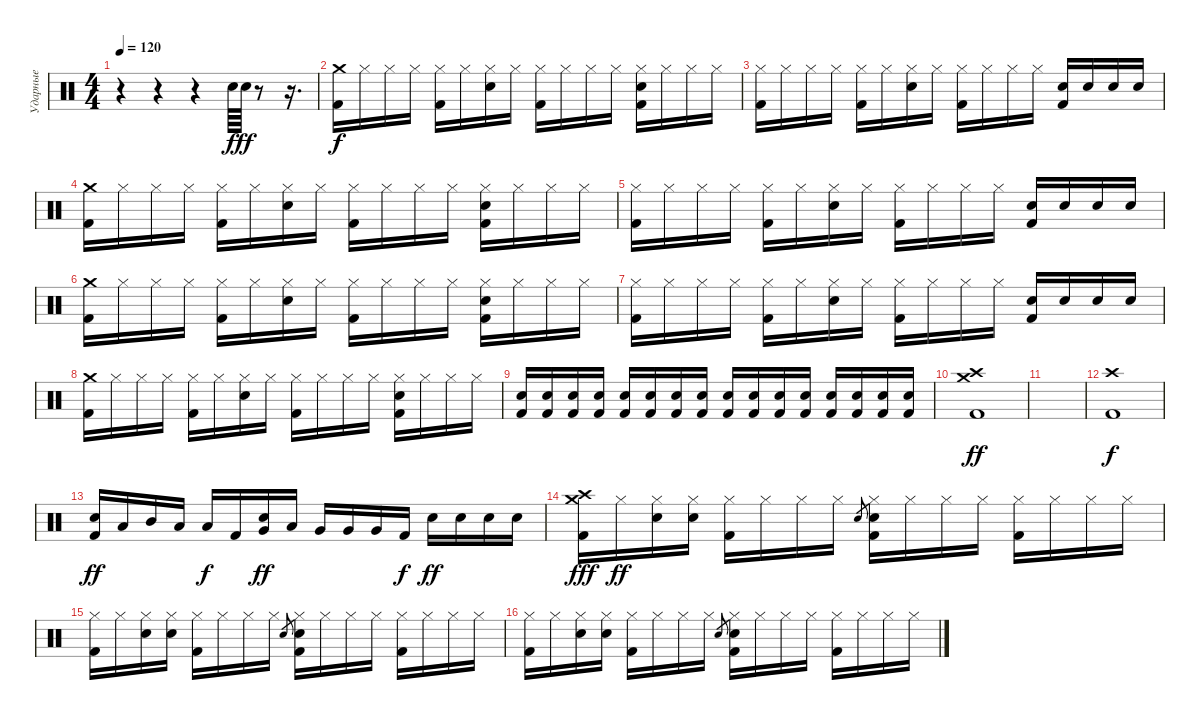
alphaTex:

\track ("Ударные" "Ударные") {instrument percussion}
\staff {score}
\articulation defaults
\ts (4 4)
\tempo 120
\clef neutral
\ks c
r.4{dy f} r.4 r.4 "Electric Snare (hit)".64 "Electric Snare (hit)".64{dy ff} r.8 r.16{d} |
("Crash medium (hit)" "Kick (hit) 2").16{dy f} "Hi-Hat (closed)".16 "Hi-Hat (closed)".16 "Hi-Hat (closed)".16 ("Hi-Hat (closed)" "Kick (hit) 2").16 "Hi-Hat (closed)".16 ("Hi-Hat (closed)" "Electric Snare (hit)").16 "Hi-Hat (closed)".16 ("Hi-Hat (closed)" "Kick (hit) 2").16 "Hi-Hat (closed)".16 "Hi-Hat (closed)".16 "Hi-Hat (closed)".16 ("Hi-Hat (closed)" "Electric Snare (hit)" "Kick (hit) 2").16 "Hi-Hat (closed)".16 "Hi-Hat (closed)".16 "Hi-Hat (closed)".16 |
("Hi-Hat (closed)" "Kick (hit) 2").16 "Hi-Hat (closed)".16 "Hi-Hat (closed)".16 "Hi-Hat (closed)".16 ("Hi-Hat (closed)" "Kick (hit) 2").16 "Hi-Hat (closed)".16 ("Hi-Hat (closed)" "Electric Snare (hit)").16 "Hi-Hat (closed)".16 ("Hi-Hat (closed)" "Kick (hit) 2").16 "Hi-Hat (closed)".16 "Hi-Hat (closed)".16 "Hi-Hat (closed)".16 ("Electric Snare (hit)" "Kick (hit) 2").16 "Electric Snare (hit)".16 "Electric Snare (hit)".16 "Electric Snare (hit)".16 |
("Crash medium (hit)" "Kick (hit) 2").16 "Hi-Hat (closed)".16 "Hi-Hat (closed)".16 "Hi-Hat (closed)".16 ("Hi-Hat (closed)" "Kick (hit) 2").16 "Hi-Hat (closed)".16 ("Hi-Hat (closed)" "Electric Snare (hit)").16 "Hi-Hat (closed)".16 ("Hi-Hat (closed)" "Kick (hit) 2").16 "Hi-Hat (closed)".16 "Hi-Hat (closed)".16 "Hi-Hat (closed)".16 ("Hi-Hat (closed)" "Electric Snare (hit)" "Kick (hit) 2").16 "Hi-Hat (closed)".16 "Hi-Hat (closed)".16 "Hi-Hat (closed)".16 |
("Hi-Hat (closed)" "Kick (hit) 2").16 "Hi-Hat (closed)".16 "Hi-Hat (closed)".16 "Hi-Hat (closed)".16 ("Hi-Hat (closed)" "Kick (hit) 2").16 "Hi-Hat (closed)".16 ("Hi-Hat (closed)" "Electric Snare (hit)").16 "Hi-Hat (closed)".16 ("Hi-Hat (closed)" "Kick (hit) 2").16 "Hi-Hat (closed)".16 "Hi-Hat (closed)".16 "Hi-Hat (closed)".16 ("Electric Snare (hit)" "Kick (hit) 2").16 "Electric Snare (hit)".16 "Electric Snare (hit)".16 "Electric Snare (hit)".16 |
("Crash medium (hit)" "Kick (hit) 2").16 "Hi-Hat (closed)".16 "Hi-Hat (closed)".16 "Hi-Hat (closed)".16 ("Hi-Hat (closed)" "Kick (hit) 2").16 "Hi-Hat (closed)".16 ("Hi-Hat (closed)" "Electric Snare (hit)").16 "Hi-Hat (closed)".16 ("Hi-Hat (closed)" "Kick (hit) 2").16 "Hi-Hat (closed)".16 "Hi-Hat (closed)".16 "Hi-Hat (closed)".16 ("Hi-Hat (closed)" "Electric Snare (hit)" "Kick (hit) 2").16 "Hi-Hat (closed)".16 "Hi-Hat (closed)".16 "Hi-Hat (closed)".16 |
("Hi-Hat (closed)" "Kick (hit) 2").16 "Hi-Hat (closed)".16 "Hi-Hat (closed)".16 "Hi-Hat (closed)".16 ("Hi-Hat (closed)" "Kick (hit) 2").16 "Hi-Hat (closed)".16 ("Hi-Hat (closed)" "Electric Snare (hit)").16 "Hi-Hat (closed)".16 ("Hi-Hat (closed)" "Kick (hit) 2").16 "Hi-Hat (closed)".16 "Hi-Hat (closed)".16 "Hi-Hat (closed)".16 ("Electric Snare (hit)" "Kick (hit) 2").16 "Electric Snare (hit)".16 "Electric Snare (hit)".16 "Electric Snare (hit)".16 |
("Crash medium (hit)" "Kick (hit) 2").16 "Hi-Hat (closed)".16 "Hi-Hat (closed)".16 "Hi-Hat (closed)".16 ("Hi-Hat (closed)" "Kick (hit) 2").16 "Hi-Hat (closed)".16 ("Hi-Hat (closed)" "Electric Snare (hit)").16 "Hi-Hat (closed)".16 ("Hi-Hat (closed)" "Kick (hit) 2").16 "Hi-Hat (closed)".16 "Hi-Hat (closed)".16 "Hi-Hat (closed)".16 ("Hi-Hat (closed)" "Electric Snare (hit)" "Kick (hit) 2").16 "Hi-Hat (closed)".16 "Hi-Hat (closed)".16 "Hi-Hat (closed)".16 |
("Electric Snare (hit)" "Kick (hit) 2").16 ("Electric Snare (hit)" "Kick (hit) 2").16 ("Electric Snare (hit)" "Kick (hit) 2").16 ("Electric Snare (hit)" "Kick (hit) 2").16 ("Electric Snare (hit)" "Kick (hit) 2").16 ("Electric Snare (hit)" "Kick (hit) 2").16 ("Electric Snare (hit)" "Kick (hit) 2").16 ("Electric Snare (hit)" "Kick (hit) 2").16 ("Electric Snare (hit)" "Kick (hit) 2").16 ("Electric Snare (hit)" "Kick (hit) 2").16 ("Electric Snare (hit)" "Kick (hit) 2").16 ("Electric Snare (hit)" "Kick (hit) 2").16 ("Electric Snare (hit)" "Kick (hit) 2").16 ("Electric Snare (hit)" "Kick (hit) 2").16 ("Electric Snare (hit)" "Kick (hit) 2").16 ("Electric Snare (hit)" "Kick (hit) 2").16 |
("Crash high (hit)" "Crash medium (hit)" "Kick (hit) 2").1{dy ff} |
|
("Crash high (hit)" "Kick (hit) 2").1{dy f} |
("Electric Snare (hit)" "Kick (hit) 2").16{dy ff} "Low Tom (hit)".16 "Mid Tom (hit)".16 "Low Tom (hit)".16 "Low Tom (hit)".16{dy f} "Kick (hit) 2".16 ("Electric Snare (hit)" "Very Low Tom (hit)").16{dy ff} "Low Tom (hit)".16 "Very Low Tom (hit)".16 "Very Low Tom (hit)".16 "Very Low Tom (hit)".16 "Kick (hit) 2".16{dy f} "Electric Snare (hit)".16{dy ff} "Electric Snare (hit)".16 "Electric Snare (hit)".16 "Electric Snare (hit)".16 |
("Crash medium (hit)" "Crash high (hit)" "Kick (hit) 2").16{dy fff} "Hi-Hat (closed)".16{dy ff} ("Hi-Hat (closed)" "Electric Snare (hit)").16 ("Hi-Hat (closed)" "Electric Snare (hit)").16 ("Hi-Hat (closed)" "Kick (hit) 2").16 "Hi-Hat (closed)".16 "Hi-Hat (closed)".16 "Hi-Hat (closed)".16 "Electric Snare (hit)".8{gr} ("Hi-Hat (closed)" "Electric Snare (hit)" "Kick (hit) 2").16 "Hi-Hat (closed)".16 "Hi-Hat (closed)".16 "Hi-Hat (closed)".16 ("Hi-Hat (closed)" "Kick (hit) 2").16 "Hi-Hat (closed)".16 "Hi-Hat (closed)".16 "Hi-Hat (closed)".16 |
("Hi-Hat (closed)" "Kick (hit) 2").16 "Hi-Hat (closed)".16 ("Hi-Hat (closed)" "Electric Snare (hit)").16 ("Hi-Hat (closed)" "Electric Snare (hit)").16 ("Hi-Hat (closed)" "Kick (hit) 2").16 "Hi-Hat (closed)".16 "Hi-Hat (closed)".16 "Hi-Hat (closed)".16 "Electric Snare (hit)".8{gr} ("Hi-Hat (closed)" "Electric Snare (hit)" "Kick (hit) 2").16 "Hi-Hat (closed)".16 "Hi-Hat (closed)".16 "Hi-Hat (closed)".16 ("Hi-Hat (closed)" "Kick (hit) 2").16 "Hi-Hat (closed)".16 "Hi-Hat (closed)".16 "Hi-Hat (closed)".16 |
("Hi-Hat (closed)" "Kick (hit) 2").16 "Hi-Hat (closed)".16 ("Hi-Hat (closed)" "Electric Snare (hit)").16 ("Hi-Hat (closed)" "Electric Snare (hit)").16 ("Hi-Hat (closed)" "Kick (hit) 2").16 "Hi-Hat (closed)".16 "Hi-Hat (closed)".16 "Hi-Hat (closed)".16 "Electric Snare (hit)".8{gr} ("Hi-Hat (closed)" "Electric Snare (hit)" "Kick (hit) 2").16 "Hi-Hat (closed)".16 "Hi-Hat (closed)".16 "Hi-Hat (closed)".16 ("Hi-Hat (closed)" "Kick (hit) 2").16 "Hi-Hat (closed)".16 "Hi-Hat (closed)".16 "Hi-Hat (closed)".16
